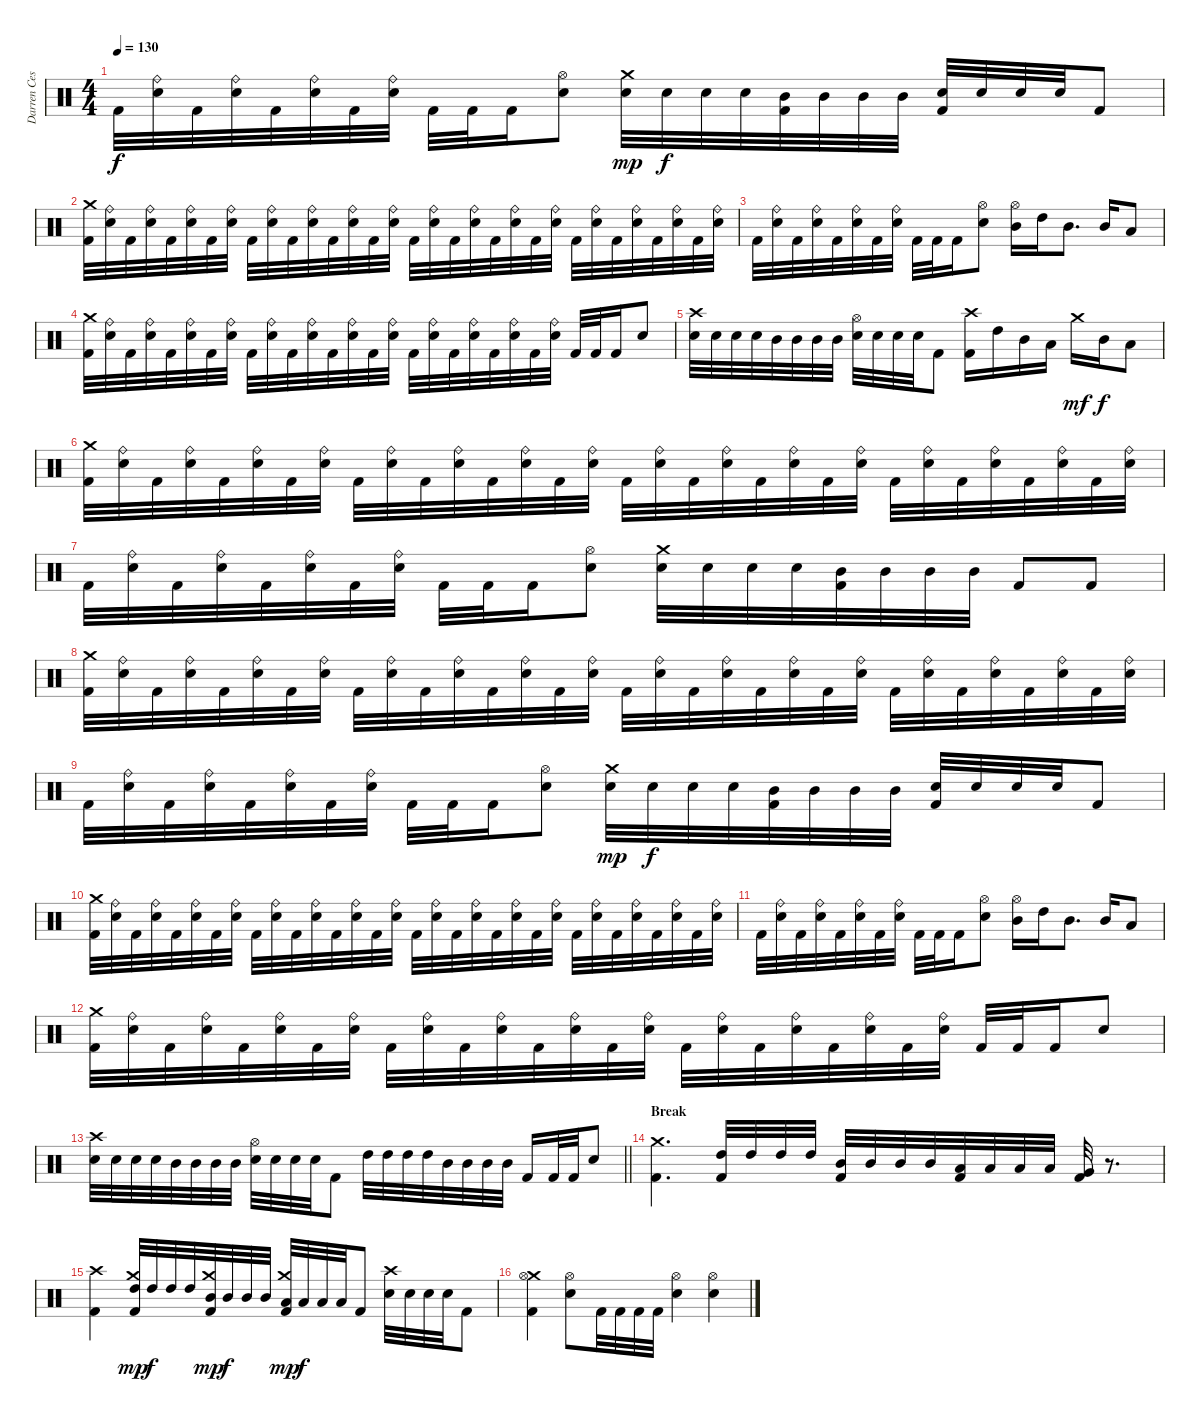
\track ("Darren Cesca" "Darren Ces") {instrument percussion}
\staff {score}
\articulation defaults
\ts (4 4)
\tempo 130
\clef neutral
\ks c "Kick (hit) 2".32{dy f}
("Ride (bell)" "Electric Snare (hit)").32 "Kick (hit) 2".32 ("Ride (bell)" "Electric Snare (hit)").32 "Kick (hit) 2".32 ("Ride (bell)" "Electric Snare (hit)").32 "Kick (hit) 2".32 ("Ride (bell)" "Electric Snare (hit)").32 "Kick (hit) 2".32 "Kick (hit) 2".32 "Kick (hit) 2".16 ("Hi-Hat (open)" "Electric Snare (hit)").8 ("Crash medium (hit)" "Electric Snare (hit)").32{dy mp} "Electric Snare (hit)".32{dy f} "Electric Snare (hit)".32 "Electric Snare (hit)".32 ("Mid Tom (hit)" "Kick (hit) 2").32 "Mid Tom (hit)".32 "Mid Tom (hit)".32 "Mid Tom (hit)".32 ("Electric Snare (hit)" "Kick (hit) 2").32 "Electric Snare (hit)".32 "Electric Snare (hit)".32 "Electric Snare (hit)".32 "Kick (hit) 2".8 |
("Crash medium (hit)" "Kick (hit) 2").32 ("Ride (bell)" "Electric Snare (hit)").32 "Kick (hit) 2".32 ("Ride (bell)" "Electric Snare (hit)").32 "Kick (hit) 2".32 ("Ride (bell)" "Electric Snare (hit)").32 "Kick (hit) 2".32 ("Ride (bell)" "Electric Snare (hit)").32 "Kick (hit) 2".32 ("Ride (bell)" "Electric Snare (hit)").32 "Kick (hit) 2".32 ("Ride (bell)" "Electric Snare (hit)").32 "Kick (hit) 2".32 ("Ride (bell)" "Electric Snare (hit)").32 "Kick (hit) 2".32 ("Ride (bell)" "Electric Snare (hit)").32 "Kick (hit) 2".32 ("Ride (bell)" "Electric Snare (hit)").32 "Kick (hit) 2".32 ("Ride (bell)" "Electric Snare (hit)").32 "Kick (hit) 2".32 ("Ride (bell)" "Electric Snare (hit)").32 "Kick (hit) 2".32 ("Ride (bell)" "Electric Snare (hit)").32 "Kick (hit) 2".32 ("Ride (bell)" "Electric Snare (hit)").32 "Kick (hit) 2".32 ("Ride (bell)" "Electric Snare (hit)").32 "Kick (hit) 2".32 ("Ride (bell)" "Electric Snare (hit)").32 "Kick (hit) 2".32 ("Ride (bell)" "Electric Snare (hit)").32 |
"Kick (hit) 2".32 ("Ride (bell)" "Electric Snare (hit)").32 "Kick (hit) 2".32 ("Ride (bell)" "Electric Snare (hit)").32 "Kick (hit) 2".32 ("Ride (bell)" "Electric Snare (hit)").32 "Kick (hit) 2".32 ("Ride (bell)" "Electric Snare (hit)").32 "Kick (hit) 2".32 "Kick (hit) 2".32 "Kick (hit) 2".16 ("Hi-Hat (open)" "Electric Snare (hit)").8 ("Hi-Hat (open)" "Mid Tom (hit)").16 "High Tom (hit)".16 "Mid Tom (hit)".8{d} "Mid Tom (hit)".16 "Low Tom (hit)".8 |
("Crash medium (hit)" "Kick (hit) 2").32 ("Ride (bell)" "Electric Snare (hit)").32 "Kick (hit) 2".32 ("Ride (bell)" "Electric Snare (hit)").32 "Kick (hit) 2".32 ("Ride (bell)" "Electric Snare (hit)").32 "Kick (hit) 2".32 ("Ride (bell)" "Electric Snare (hit)").32 "Kick (hit) 2".32 ("Ride (bell)" "Electric Snare (hit)").32 "Kick (hit) 2".32 ("Ride (bell)" "Electric Snare (hit)").32 "Kick (hit) 2".32 ("Ride (bell)" "Electric Snare (hit)").32 "Kick (hit) 2".32 ("Ride (bell)" "Electric Snare (hit)").32 "Kick (hit) 2".32 ("Ride (bell)" "Electric Snare (hit)").32 "Kick (hit) 2".32 ("Ride (bell)" "Electric Snare (hit)").32 "Kick (hit) 2".32 ("Ride (bell)" "Electric Snare (hit)").32 "Kick (hit) 2".32 ("Ride (bell)" "Electric Snare (hit)").32 "Kick (hit) 2".32 "Kick (hit) 2".32 "Kick (hit) 2".16 "Electric Snare (hit)".8 |
("Crash high (hit)" "Electric Snare (hit)").32 "Electric Snare (hit)".32 "Electric Snare (hit)".32 "Electric Snare (hit)".32 "Mid Tom (hit)".32 "Mid Tom (hit)".32 "Mid Tom (hit)".32 "Mid Tom (hit)".32 ("Hi-Hat (open)" "Electric Snare (hit)").32 "Electric Snare (hit)".32 "Electric Snare (hit)".32 "Electric Snare (hit)".32 "Kick (hit) 2".8 ("Crash high (hit)" "Kick (hit) 2").16 "High Tom (hit)".16 "Mid Tom (hit)".16 "Low Tom (hit)".16 "Crash medium (hit)".16{dy mf} "Mid Tom (hit)".16{dy f} "Low Tom (hit)".8 |
("Crash medium (hit)" "Kick (hit) 2").32 ("Ride (bell)" "Electric Snare (hit)").32 "Kick (hit) 2".32 ("Ride (bell)" "Electric Snare (hit)").32 "Kick (hit) 2".32 ("Ride (bell)" "Electric Snare (hit)").32 "Kick (hit) 2".32 ("Ride (bell)" "Electric Snare (hit)").32 "Kick (hit) 2".32 ("Ride (bell)" "Electric Snare (hit)").32 "Kick (hit) 2".32 ("Ride (bell)" "Electric Snare (hit)").32 "Kick (hit) 2".32 ("Ride (bell)" "Electric Snare (hit)").32 "Kick (hit) 2".32 ("Ride (bell)" "Electric Snare (hit)").32 "Kick (hit) 2".32 ("Ride (bell)" "Electric Snare (hit)").32 "Kick (hit) 2".32 ("Ride (bell)" "Electric Snare (hit)").32 "Kick (hit) 2".32 ("Ride (bell)" "Electric Snare (hit)").32 "Kick (hit) 2".32 ("Ride (bell)" "Electric Snare (hit)").32 "Kick (hit) 2".32 ("Ride (bell)" "Electric Snare (hit)").32 "Kick (hit) 2".32 ("Ride (bell)" "Electric Snare (hit)").32 "Kick (hit) 2".32 ("Ride (bell)" "Electric Snare (hit)").32 "Kick (hit) 2".32 ("Ride (bell)" "Electric Snare (hit)").32 |
"Kick (hit) 2".32 ("Ride (bell)" "Electric Snare (hit)").32 "Kick (hit) 2".32 ("Ride (bell)" "Electric Snare (hit)").32 "Kick (hit) 2".32 ("Ride (bell)" "Electric Snare (hit)").32 "Kick (hit) 2".32 ("Ride (bell)" "Electric Snare (hit)").32 "Kick (hit) 2".32 "Kick (hit) 2".32 "Kick (hit) 2".16 ("Hi-Hat (open)" "Electric Snare (hit)").8 ("Crash medium (hit)" "Electric Snare (hit)").32 "Electric Snare (hit)".32 "Electric Snare (hit)".32 "Electric Snare (hit)".32 ("Mid Tom (hit)" "Kick (hit) 2").32 "Mid Tom (hit)".32 "Mid Tom (hit)".32 "Mid Tom (hit)".32 "Kick (hit) 2".8 "Kick (hit) 2".8 |
("Crash medium (hit)" "Kick (hit) 2").32 ("Ride (bell)" "Electric Snare (hit)").32 "Kick (hit) 2".32 ("Ride (bell)" "Electric Snare (hit)").32 "Kick (hit) 2".32 ("Ride (bell)" "Electric Snare (hit)").32 "Kick (hit) 2".32 ("Ride (bell)" "Electric Snare (hit)").32 "Kick (hit) 2".32 ("Ride (bell)" "Electric Snare (hit)").32 "Kick (hit) 2".32 ("Ride (bell)" "Electric Snare (hit)").32 "Kick (hit) 2".32 ("Ride (bell)" "Electric Snare (hit)").32 "Kick (hit) 2".32 ("Ride (bell)" "Electric Snare (hit)").32 "Kick (hit) 2".32 ("Ride (bell)" "Electric Snare (hit)").32 "Kick (hit) 2".32 ("Ride (bell)" "Electric Snare (hit)").32 "Kick (hit) 2".32 ("Ride (bell)" "Electric Snare (hit)").32 "Kick (hit) 2".32 ("Ride (bell)" "Electric Snare (hit)").32 "Kick (hit) 2".32 ("Ride (bell)" "Electric Snare (hit)").32 "Kick (hit) 2".32 ("Ride (bell)" "Electric Snare (hit)").32 "Kick (hit) 2".32 ("Ride (bell)" "Electric Snare (hit)").32 "Kick (hit) 2".32 ("Ride (bell)" "Electric Snare (hit)").32 |
"Kick (hit) 2".32 ("Ride (bell)" "Electric Snare (hit)").32 "Kick (hit) 2".32 ("Ride (bell)" "Electric Snare (hit)").32 "Kick (hit) 2".32 ("Ride (bell)" "Electric Snare (hit)").32 "Kick (hit) 2".32 ("Ride (bell)" "Electric Snare (hit)").32 "Kick (hit) 2".32 "Kick (hit) 2".32 "Kick (hit) 2".16 ("Hi-Hat (open)" "Electric Snare (hit)").8 ("Crash medium (hit)" "Electric Snare (hit)").32{dy mp} "Electric Snare (hit)".32{dy f} "Electric Snare (hit)".32 "Electric Snare (hit)".32 ("Mid Tom (hit)" "Kick (hit) 2").32 "Mid Tom (hit)".32 "Mid Tom (hit)".32 "Mid Tom (hit)".32 ("Electric Snare (hit)" "Kick (hit) 2").32 "Electric Snare (hit)".32 "Electric Snare (hit)".32 "Electric Snare (hit)".32 "Kick (hit) 2".8 |
("Crash medium (hit)" "Kick (hit) 2").32 ("Ride (bell)" "Electric Snare (hit)").32 "Kick (hit) 2".32 ("Ride (bell)" "Electric Snare (hit)").32 "Kick (hit) 2".32 ("Ride (bell)" "Electric Snare (hit)").32 "Kick (hit) 2".32 ("Ride (bell)" "Electric Snare (hit)").32 "Kick (hit) 2".32 ("Ride (bell)" "Electric Snare (hit)").32 "Kick (hit) 2".32 ("Ride (bell)" "Electric Snare (hit)").32 "Kick (hit) 2".32 ("Ride (bell)" "Electric Snare (hit)").32 "Kick (hit) 2".32 ("Ride (bell)" "Electric Snare (hit)").32 "Kick (hit) 2".32 ("Ride (bell)" "Electric Snare (hit)").32 "Kick (hit) 2".32 ("Ride (bell)" "Electric Snare (hit)").32 "Kick (hit) 2".32 ("Ride (bell)" "Electric Snare (hit)").32 "Kick (hit) 2".32 ("Ride (bell)" "Electric Snare (hit)").32 "Kick (hit) 2".32 ("Ride (bell)" "Electric Snare (hit)").32 "Kick (hit) 2".32 ("Ride (bell)" "Electric Snare (hit)").32 "Kick (hit) 2".32 ("Ride (bell)" "Electric Snare (hit)").32 "Kick (hit) 2".32 ("Ride (bell)" "Electric Snare (hit)").32 |
"Kick (hit) 2".32 ("Ride (bell)" "Electric Snare (hit)").32 "Kick (hit) 2".32 ("Ride (bell)" "Electric Snare (hit)").32 "Kick (hit) 2".32 ("Ride (bell)" "Electric Snare (hit)").32 "Kick (hit) 2".32 ("Ride (bell)" "Electric Snare (hit)").32 "Kick (hit) 2".32 "Kick (hit) 2".32 "Kick (hit) 2".16 ("Hi-Hat (open)" "Electric Snare (hit)").8 ("Hi-Hat (open)" "Mid Tom (hit)").16 "High Tom (hit)".16 "Mid Tom (hit)".8{d} "Mid Tom (hit)".16 "Low Tom (hit)".8 |
("Crash medium (hit)" "Kick (hit) 2").32 ("Ride (bell)" "Electric Snare (hit)").32 "Kick (hit) 2".32 ("Ride (bell)" "Electric Snare (hit)").32 "Kick (hit) 2".32 ("Ride (bell)" "Electric Snare (hit)").32 "Kick (hit) 2".32 ("Ride (bell)" "Electric Snare (hit)").32 "Kick (hit) 2".32 ("Ride (bell)" "Electric Snare (hit)").32 "Kick (hit) 2".32 ("Ride (bell)" "Electric Snare (hit)").32 "Kick (hit) 2".32 ("Ride (bell)" "Electric Snare (hit)").32 "Kick (hit) 2".32 ("Ride (bell)" "Electric Snare (hit)").32 "Kick (hit) 2".32 ("Ride (bell)" "Electric Snare (hit)").32 "Kick (hit) 2".32 ("Ride (bell)" "Electric Snare (hit)").32 "Kick (hit) 2".32 ("Ride (bell)" "Electric Snare (hit)").32 "Kick (hit) 2".32 ("Ride (bell)" "Electric Snare (hit)").32 "Kick (hit) 2".32 "Kick (hit) 2".32 "Kick (hit) 2".16 "Electric Snare (hit)".8 |
\barLineRight lightlight
("Crash high (hit)" "Electric Snare (hit)").32 "Electric Snare (hit)".32 "Electric Snare (hit)".32 "Electric Snare (hit)".32 "Mid Tom (hit)".32 "Mid Tom (hit)".32 "Mid Tom (hit)".32 "Mid Tom (hit)".32 ("Hi-Hat (open)" "Electric Snare (hit)").32 "Electric Snare (hit)".32 "Electric Snare (hit)".32 "Electric Snare (hit)".32 "Kick (hit) 2".8 "High Tom (hit)".32 "High Tom (hit)".32 "High Tom (hit)".32 "High Tom (hit)".32 "Mid Tom (hit)".32 "Mid Tom (hit)".32 "Mid Tom (hit)".32 "Mid Tom (hit)".32 "Kick (hit) 2".16 "Kick (hit) 2".32 "Kick (hit) 2".32 "Electric Snare (hit)".8 |
\section ("" "Break")
("Crash medium (hit)" "Kick (hit) 2").4{d} ("High Tom (hit)" "Kick (hit) 2").32 "High Tom (hit)".32 "High Tom (hit)".32 "High Tom (hit)".32 ("Mid Tom (hit)" "Kick (hit) 2").32 "Mid Tom (hit)".32 "Mid Tom (hit)".32 "Mid Tom (hit)".32 ("Low Tom (hit)" "Kick (hit) 2").32 "Low Tom (hit)".32 "Low Tom (hit)".32 "Low Tom (hit)".32 ("Very Low Tom (hit)" "Kick (hit) 2").32 r.8{d} |
("Crash high (hit)" "Kick (hit) 2").4 ("Crash medium (hit)" "High Tom (hit)" "Kick (hit) 2").32{dy mp} "High Tom (hit)".32{dy f} "High Tom (hit)".32 "High Tom (hit)".32 ("Crash medium (hit)" "Mid Tom (hit)" "Kick (hit) 2").32{dy mp} "Mid Tom (hit)".32{dy f} "Mid Tom (hit)".32 "Mid Tom (hit)".32 ("Crash medium (hit)" "Low Tom (hit)" "Kick (hit) 2").32{dy mp} "Low Tom (hit)".32{dy f} "Low Tom (hit)".32 "Low Tom (hit)".32 "Kick (hit) 2".8 ("Crash high (hit)" "Electric Snare (hit)").32 "Electric Snare (hit)".32 "Electric Snare (hit)".32 "Electric Snare (hit)".32 "Kick (hit) 2".8 |
("Crash medium (hit)" "Hi-Hat (open)" "Kick (hit) 2").4 ("Hi-Hat (open)" "Electric Snare (hit)").8 "Kick (hit) 2".32 "Kick (hit) 2".32 "Kick (hit) 2".32 "Kick (hit) 2".32 ("Hi-Hat (open)" "Electric Snare (hit)").4 ("Hi-Hat (open)" "Electric Snare (hit)").4
